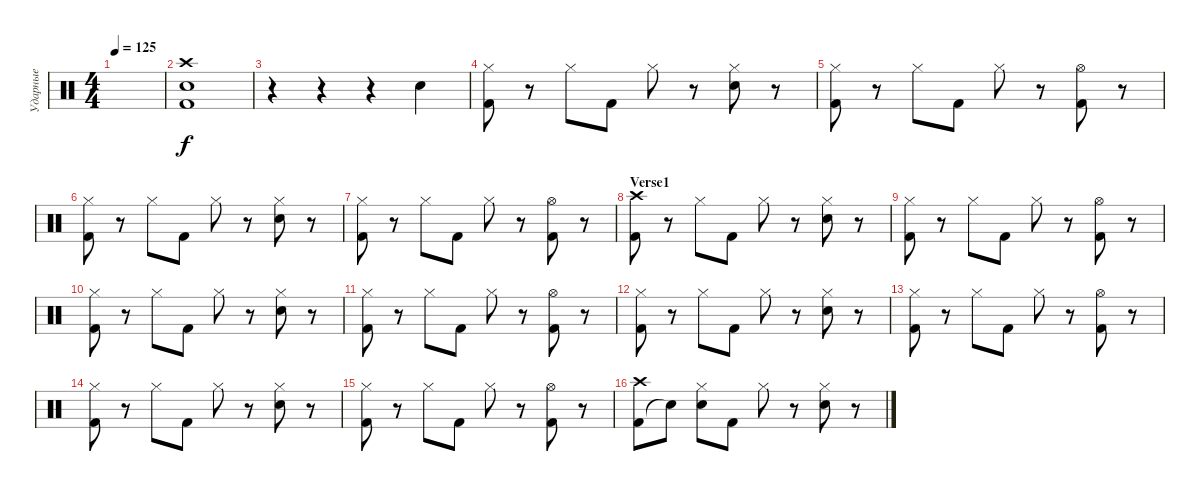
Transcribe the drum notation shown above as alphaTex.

\track ("Ударные" "Ударные") {instrument percussion}
\staff {score}
\articulation defaults
\ts (4 4)
\tempo 125
\clef neutral
\ks c
|
("Crash high (hit)" "Snare (hit) 2" "Kick (hit) 2").1 |
r.4 r.4 r.4 "Snare (hit) 2".4 |
("Kick (hit) 2" "Hi-Hat (closed)").8 r.8 "Hi-Hat (closed)".8 "Kick (hit) 2".8 "Hi-Hat (closed)".8 r.8 ("Snare (hit) 2" "Hi-Hat (closed)").8 r.8 |
("Kick (hit) 2" "Hi-Hat (closed)").8 r.8 "Hi-Hat (closed)".8 "Kick (hit) 2".8 "Hi-Hat (closed)".8 r.8 ("Hi-Hat (open)" "Kick (hit) 2").8 r.8 |
("Kick (hit) 2" "Hi-Hat (closed)").8 r.8 "Hi-Hat (closed)".8 "Kick (hit) 2".8 "Hi-Hat (closed)".8 r.8 ("Snare (hit) 2" "Hi-Hat (closed)").8 r.8 |
("Kick (hit) 2" "Hi-Hat (closed)").8 r.8 "Hi-Hat (closed)".8 "Kick (hit) 2".8 "Hi-Hat (closed)".8 r.8 ("Hi-Hat (open)" "Kick (hit) 2").8 r.8 |
\section ("" "Verse1")
("Kick (hit) 2" "Crash high (hit)").8 r.8 "Hi-Hat (closed)".8 "Kick (hit) 2".8 "Hi-Hat (closed)".8 r.8 ("Snare (hit) 2" "Hi-Hat (closed)").8 r.8 |
("Kick (hit) 2" "Hi-Hat (closed)").8 r.8 "Hi-Hat (closed)".8 "Kick (hit) 2".8 "Hi-Hat (closed)".8 r.8 ("Hi-Hat (open)" "Kick (hit) 2").8 r.8 |
("Kick (hit) 2" "Hi-Hat (closed)").8 r.8 "Hi-Hat (closed)".8 "Kick (hit) 2".8 "Hi-Hat (closed)".8 r.8 ("Snare (hit) 2" "Hi-Hat (closed)").8 r.8 |
("Kick (hit) 2" "Hi-Hat (closed)").8 r.8 "Hi-Hat (closed)".8 "Kick (hit) 2".8 "Hi-Hat (closed)".8 r.8 ("Hi-Hat (open)" "Kick (hit) 2").8 r.8 |
("Kick (hit) 2" "Hi-Hat (closed)").8 r.8 "Hi-Hat (closed)".8 "Kick (hit) 2".8 "Hi-Hat (closed)".8 r.8 ("Snare (hit) 2" "Hi-Hat (closed)").8 r.8 |
("Kick (hit) 2" "Hi-Hat (closed)").8 r.8 "Hi-Hat (closed)".8 "Kick (hit) 2".8 "Hi-Hat (closed)".8 r.8 ("Hi-Hat (open)" "Kick (hit) 2").8 r.8 |
("Kick (hit) 2" "Hi-Hat (closed)").8 r.8 "Hi-Hat (closed)".8 "Kick (hit) 2".8 "Hi-Hat (closed)".8 r.8 ("Snare (hit) 2" "Hi-Hat (closed)").8 r.8 |
("Kick (hit) 2" "Hi-Hat (closed)").8 r.8 "Hi-Hat (closed)".8 "Kick (hit) 2".8 "Hi-Hat (closed)".8 r.8 ("Hi-Hat (open)" "Kick (hit) 2").8 r.8 |
("Kick (hit) 2" "Crash high (hit)").8 "Snare (hit)"{t}.8 ("Hi-Hat (closed)" "Snare (hit) 2").8 "Kick (hit) 2".8 "Hi-Hat (closed)".8 r.8 ("Snare (hit) 2" "Hi-Hat (closed)").8 r.8
